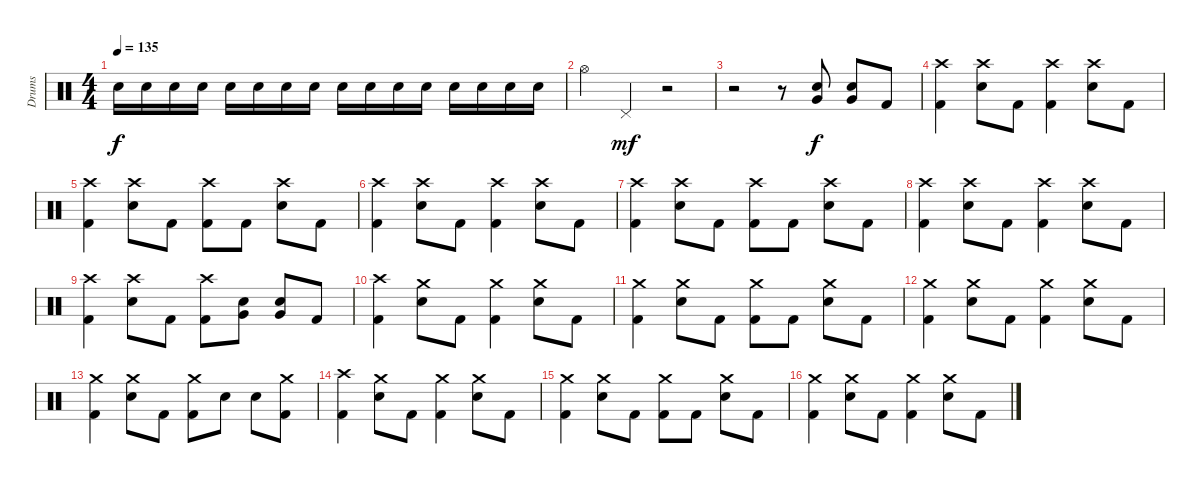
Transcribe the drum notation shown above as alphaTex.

\track ("Drums" "Drums") {instrument percussion}
\staff {score}
\articulation defaults
\ts (4 4)
\tempo 135
\clef neutral
\ks c "Electric Snare (hit)".16{dy f} "Electric Snare (hit)".16 "Electric Snare (hit)".16 "Electric Snare (hit)".16 "Electric Snare (hit)".16 "Electric Snare (hit)".16 "Electric Snare (hit)".16 "Electric Snare (hit)".16 "Electric Snare (hit)".16 "Electric Snare (hit)".16 "Electric Snare (hit)".16 "Electric Snare (hit)".16 "Electric Snare (hit)".16 "Electric Snare (hit)".16 "Electric Snare (hit)".16 "Electric Snare (hit)".16
|
"Hi-Hat (open)".4 "Pedal Hi-Hat (hit)".4{dy mf} r.2 |
r.2 r.8 ("Very Low Tom (hit)" "Electric Snare (hit)").8{dy f} ("Very Low Tom (hit)" "Electric Snare (hit)").8 "Kick (hit) 2".8 |
("Crash high (hit)" "Kick (hit) 2").4 ("Crash high (hit)" "Electric Snare (hit)").8 "Kick (hit) 2".8 ("Crash high (hit)" "Kick (hit) 2").4 ("Crash high (hit)" "Electric Snare (hit)").8 "Kick (hit) 2".8 |
("Crash high (hit)" "Kick (hit) 2").4 ("Crash high (hit)" "Electric Snare (hit)").8 "Kick (hit) 2".8 ("Crash high (hit)" "Kick (hit) 2").8 "Kick (hit) 2".8 ("Crash high (hit)" "Electric Snare (hit)").8 "Kick (hit) 2".8 |
("Crash high (hit)" "Kick (hit) 2").4 ("Crash high (hit)" "Electric Snare (hit)").8 "Kick (hit) 2".8 ("Crash high (hit)" "Kick (hit) 2").4 ("Crash high (hit)" "Electric Snare (hit)").8 "Kick (hit) 2".8 |
("Crash high (hit)" "Kick (hit) 2").4 ("Crash high (hit)" "Electric Snare (hit)").8 "Kick (hit) 2".8 ("Crash high (hit)" "Kick (hit) 2").8 "Kick (hit) 2".8 ("Crash high (hit)" "Electric Snare (hit)").8 "Kick (hit) 2".8 |
("Crash high (hit)" "Kick (hit) 2").4 ("Crash high (hit)" "Electric Snare (hit)").8 "Kick (hit) 2".8 ("Crash high (hit)" "Kick (hit) 2").4 ("Crash high (hit)" "Electric Snare (hit)").8 "Kick (hit) 2".8 |
("Crash high (hit)" "Kick (hit) 2").4 ("Crash high (hit)" "Electric Snare (hit)").8 "Kick (hit) 2".8 ("Crash high (hit)" "Kick (hit) 2").8 ("Very Low Tom (hit)" "Electric Snare (hit)").8 ("Very Low Tom (hit)" "Electric Snare (hit)").8 "Kick (hit) 2".8 |
("Crash high (hit)" "Kick (hit) 2").4 ("Crash medium (hit)" "Electric Snare (hit)").8 "Kick (hit) 2".8 ("Crash medium (hit)" "Kick (hit) 2").4 ("Crash medium (hit)" "Electric Snare (hit)").8 "Kick (hit) 2".8 |
("Crash medium (hit)" "Kick (hit) 2").4 ("Crash medium (hit)" "Electric Snare (hit)").8 "Kick (hit) 2".8 ("Crash medium (hit)" "Kick (hit) 2").8 "Kick (hit) 2".8 ("Crash medium (hit)" "Electric Snare (hit)").8 "Kick (hit) 2".8 |
("Crash medium (hit)" "Kick (hit) 2").4 ("Crash medium (hit)" "Electric Snare (hit)").8 "Kick (hit) 2".8 ("Crash medium (hit)" "Kick (hit) 2").4 ("Crash medium (hit)" "Electric Snare (hit)").8 "Kick (hit) 2".8 |
("Crash medium (hit)" "Kick (hit) 2").4 ("Crash medium (hit)" "Electric Snare (hit)").8 "Kick (hit) 2".8 ("Crash medium (hit)" "Kick (hit) 2").8 "Electric Snare (hit)".8 "Electric Snare (hit)".8 ("Crash medium (hit)" "Kick (hit) 2").8 |
("Crash high (hit)" "Kick (hit) 2").4 ("Crash medium (hit)" "Electric Snare (hit)").8 "Kick (hit) 2".8 ("Crash medium (hit)" "Kick (hit) 2").4 ("Crash medium (hit)" "Electric Snare (hit)").8 "Kick (hit) 2".8 |
("Crash medium (hit)" "Kick (hit) 2").4 ("Crash medium (hit)" "Electric Snare (hit)").8 "Kick (hit) 2".8 ("Crash medium (hit)" "Kick (hit) 2").8 "Kick (hit) 2".8 ("Crash medium (hit)" "Electric Snare (hit)").8 "Kick (hit) 2".8 |
("Crash medium (hit)" "Kick (hit) 2").4 ("Crash medium (hit)" "Electric Snare (hit)").8 "Kick (hit) 2".8 ("Crash medium (hit)" "Kick (hit) 2").4 ("Crash medium (hit)" "Electric Snare (hit)").8 "Kick (hit) 2".8
